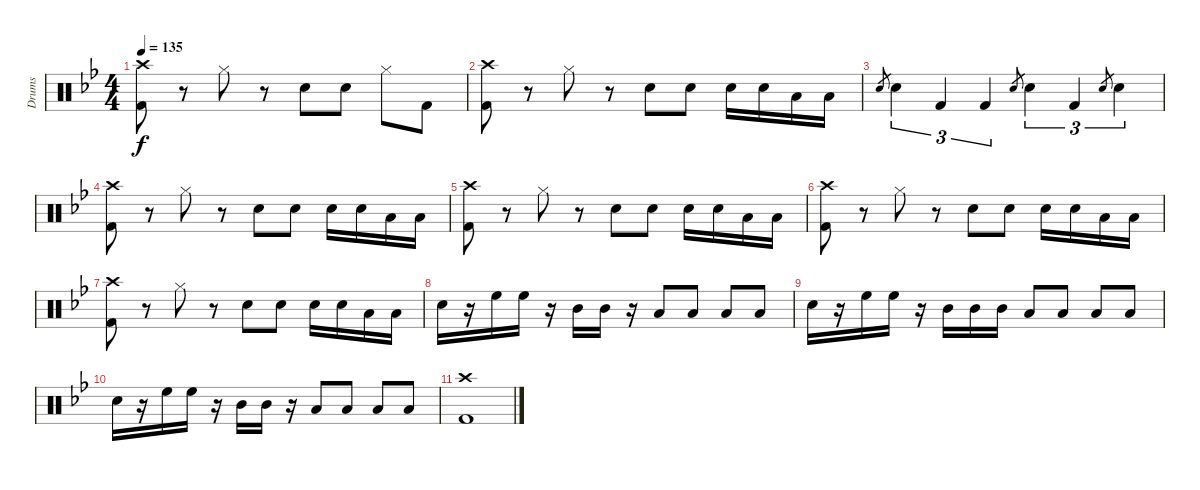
\track ("Drums" "Drums") {instrument percussion}
\staff {score}
\articulation defaults
\ts (4 4)
\tempo 135
\clef neutral
\ks bb
("Crash high (hit)" "Kick (hit) 2").8{dy f} r.8 "Hi-Hat (closed)".8 r.8 "Snare (hit) 2".8 "Snare (hit) 2".8 "Hi-Hat (closed)".8 "Kick (hit) 2".8 |
("Crash high (hit)" "Kick (hit) 2").8 r.8 "Hi-Hat (closed)".8 r.8 "Snare (hit) 2".8 "Snare (hit) 2".8 "Snare (hit) 2".16 "Snare (hit) 2".16 "Low Tom (hit)".16 "Low Floor Tom (hit)".16 |
"Snare (hit) 2".8{gr} "Snare (hit) 2".4{tu (3 2)} "Kick (hit) 2".4{tu (3 2)} "Kick (hit) 2".4{tu (3 2)} "Snare (hit) 2".8{gr} "Snare (hit) 2".4{tu (3 2)} "Kick (hit) 2".4{tu (3 2)} "Snare (hit) 2".8{gr} "Snare (hit) 2".4{tu (3 2)} |
("Crash high (hit)" "Kick (hit) 2").8 r.8 "Hi-Hat (closed)".8 r.8 "Snare (hit) 2".8 "Snare (hit) 2".8 "Snare (hit) 2".16 "Snare (hit) 2".16 "Low Tom (hit)".16 "Low Floor Tom (hit)".16 |
("Crash high (hit)" "Kick (hit) 2").8 r.8 "Hi-Hat (closed)".8 r.8 "Snare (hit) 2".8 "Snare (hit) 2".8 "Snare (hit) 2".16 "Snare (hit) 2".16 "Low Tom (hit)".16 "Low Floor Tom (hit)".16 |
("Crash high (hit)" "Kick (hit) 2").8 r.8 "Hi-Hat (closed)".8 r.8 "Snare (hit) 2".8 "Snare (hit) 2".8 "Snare (hit) 2".16 "Snare (hit) 2".16 "Low Tom (hit)".16 "Low Floor Tom (hit)".16 |
("Crash high (hit)" "Kick (hit) 2").8 r.8 "Hi-Hat (closed)".8 r.8 "Snare (hit) 2".8 "Snare (hit) 2".8 "Snare (hit) 2".16 "Snare (hit) 2".16 "Low Tom (hit)".16 "Low Floor Tom (hit)".16 |
"Snare (hit) 2".16 r.16 "High Floor Tom (hit)".16 "High Floor Tom (hit)".16 r.16 "Mid Tom (hit)".16 "Mid Tom (hit)".16 r.16 "Low Tom (hit)".8 "Low Tom (hit)".8 "Low Floor Tom (hit)".8 "Low Floor Tom (hit)".8 |
"Snare (hit) 2".16 r.16 "High Floor Tom (hit)".16 "High Floor Tom (hit)".16 r.16 "Mid Tom (hit)".16 "Mid Tom (hit)".16 "Mid Tom (hit)".16 "Low Tom (hit)".8 "Low Tom (hit)".8 "Low Floor Tom (hit)".8 "Low Floor Tom (hit)".8 |
"Snare (hit) 2".16 r.16 "High Floor Tom (hit)".16 "High Floor Tom (hit)".16 r.16 "Mid Tom (hit)".16 "Mid Tom (hit)".16 r.16 "Low Tom (hit)".8 "Low Tom (hit)".8 "Low Floor Tom (hit)".8 "Low Floor Tom (hit)".8 |
("Crash high (hit)" "Kick (hit) 2").1
